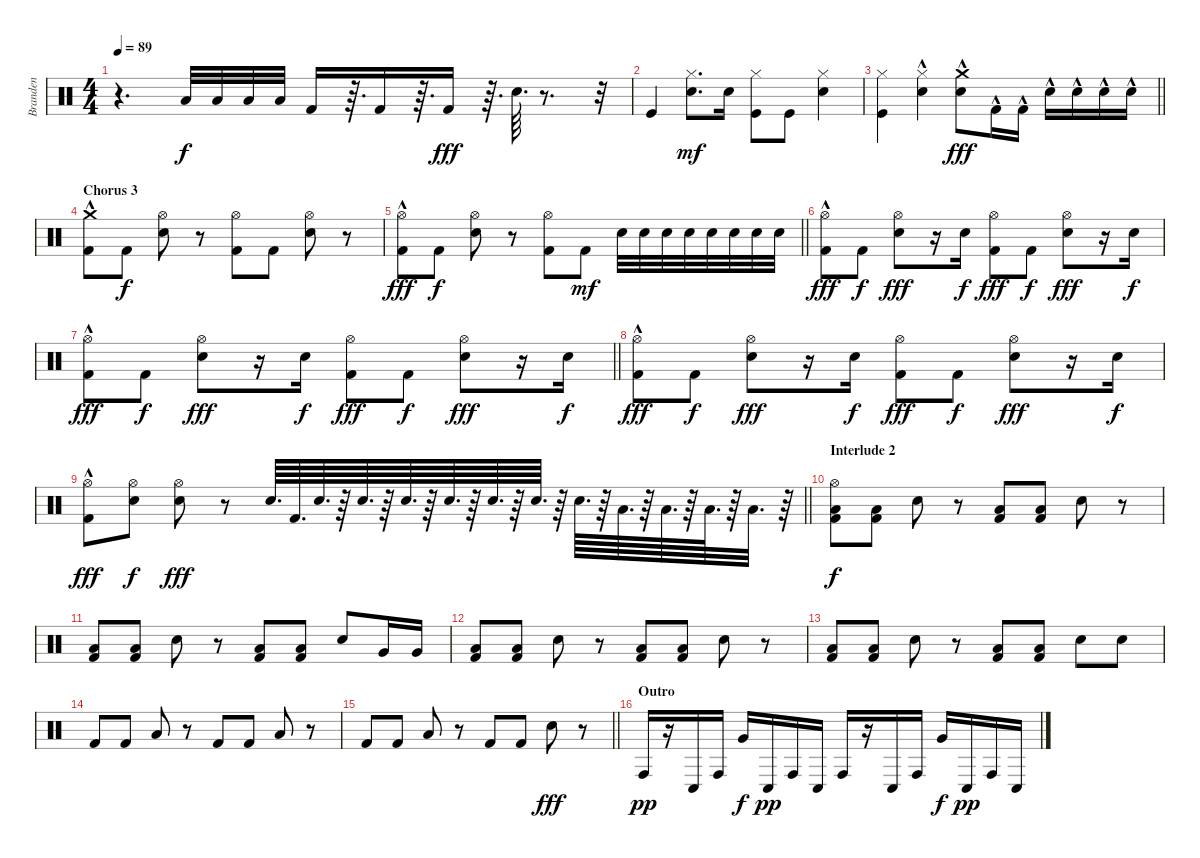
\track ("Branden" "Branden") {instrument percussion}
\staff {score}
\articulation defaults
\ts (4 4)
\tempo 89
\clef neutral
\ks c
r.4{d dy ff} "Low Tom (hit)".32{dy f} "Low Tom (hit)".32 "Low Tom (hit)".32 "Low Floor Tom (hit)".32 "Kick (hit) 2".16 r.64{d} "Kick (hit) 2".16 r.64{d} "Kick (hit) 2".16{dy fff} r.64{d} "Electric Snare (hit)".64{d} r.8{d} r.32 |
"Kick (hit)".4 ("Hi-Hat (closed)" "Electric Snare (hit)").8{d dy mf} "Electric Snare (hit)".16 ("Hi-Hat (closed)" "Kick (hit)").8 "Kick (hit)".8 ("Hi-Hat (closed)" "Electric Snare (hit)").4 |
\barLineRight lightlight
("Hi-Hat (closed)" "Kick (hit)").4 ("Hi-Hat (closed)"{hac} "Electric Snare (hit)").4 ("Crash medium (hit)"{hac} "Electric Snare (hit)"{hac}).8{dy fff} "Kick (hit) 2"{hac}.16 "Kick (hit) 2"{hac}.16 "Electric Snare (hit)"{hac}.16 "Electric Snare (hit)"{hac}.16 "Electric Snare (hit)"{hac}.16 "Electric Snare (hit)"{hac}.16 |
\section ("" "Chorus 3")
("Crash medium (hit)"{hac} "Kick (hit) 2").8 "Kick (hit) 2".8{dy f} ("Hi-Hat (open)" "Electric Snare (hit)").8 r.8 ("Hi-Hat (open)" "Kick (hit) 2").8 "Kick (hit) 2".8 ("Hi-Hat (open)" "Electric Snare (hit)").8 r.8 |
\barLineRight lightlight
("Hi-Hat (open)"{hac} "Kick (hit) 2").8{dy fff} "Kick (hit) 2".8{dy f} ("Hi-Hat (open)" "Electric Snare (hit)").8 r.8 ("Hi-Hat (open)" "Kick (hit) 2").8 "Kick (hit) 2".8{dy mf} "Electric Snare (hit)".32 "Electric Snare (hit)".32 "Electric Snare (hit)".32 "Electric Snare (hit)".32 "Electric Snare (hit)".32 "Electric Snare (hit)".32 "Electric Snare (hit)".32 "Electric Snare (hit)".32 |
("Hi-Hat (open)"{hac} "Kick (hit) 2").8{dy fff} "Kick (hit) 2".8{dy f} ("Hi-Hat (open)" "Electric Snare (hit)").8{dy fff} r.16 "Electric Snare (hit)".16{dy f} ("Hi-Hat (open)" "Kick (hit) 2").8{dy fff} "Kick (hit) 2".8{dy f} ("Hi-Hat (open)" "Electric Snare (hit)").8{dy fff} r.16 "Electric Snare (hit)".16{dy f} |
\barLineRight lightlight
("Hi-Hat (open)"{hac} "Kick (hit) 2").8{dy fff} "Kick (hit) 2".8{dy f} ("Hi-Hat (open)" "Electric Snare (hit)").8{dy fff} r.16 "Electric Snare (hit)".16{dy f} ("Hi-Hat (open)" "Kick (hit) 2").8{dy fff} "Kick (hit) 2".8{dy f} ("Hi-Hat (open)" "Electric Snare (hit)").8{dy fff} r.16 "Electric Snare (hit)".16{dy f} |
("Hi-Hat (open)"{hac} "Kick (hit) 2").8{dy fff} "Kick (hit) 2".8{dy f} ("Hi-Hat (open)" "Electric Snare (hit)").8{dy fff} r.16 "Electric Snare (hit)".16{dy f} ("Hi-Hat (open)" "Kick (hit) 2").8{dy fff} "Kick (hit) 2".8{dy f} ("Hi-Hat (open)" "Electric Snare (hit)").8{dy fff} r.16 "Electric Snare (hit)".16{dy f} |
\barLineRight lightlight
("Hi-Hat (open)"{hac} "Kick (hit) 2").8{dy fff} ("Hi-Hat (open)" "Electric Snare (hit)").8{dy f} ("Hi-Hat (open)" "Electric Snare (hit)").8{dy fff} r.8 "Electric Snare (hit)".64{d} "Kick (hit) 2".64{d} "Electric Snare (hit)".64{d} r.64 "Electric Snare (hit)".64{d} r.64 "Electric Snare (hit)".64{d} r.64 "Electric Snare (hit)".64{d} r.64 "Electric Snare (hit)".64{d} r.64 "Electric Snare (hit)".64{d} r.64 "Electric Snare (hit)".64{d} r.64 "Low Tom (hit)".64{d} r.64 "Low Tom (hit)".64{d} r.64 "Low Floor Tom (hit)".64{d} r.64 "Low Floor Tom (hit)".32{d} r.64 |
\section ("" "Interlude 2")
("Hi-Hat (open)" "Low Floor Tom (hit)" "Kick (hit) 2").8{dy f} ("Low Floor Tom (hit)" "Kick (hit) 2").8 "Electric Snare (hit)".8 r.8 ("Low Floor Tom (hit)" "Kick (hit) 2").8 ("Low Floor Tom (hit)" "Kick (hit) 2").8 "Electric Snare (hit)".8 r.8 |
("Low Floor Tom (hit)" "Kick (hit) 2").8 ("Low Floor Tom (hit)" "Kick (hit) 2").8 "Electric Snare (hit)".8 r.8 ("Low Floor Tom (hit)" "Kick (hit) 2").8 ("Low Floor Tom (hit)" "Kick (hit) 2").8 "Electric Snare (hit)".8 "Very Low Tom (hit)".16 "Very Low Tom (hit)".16 |
("Low Floor Tom (hit)" "Kick (hit) 2").8 ("Low Floor Tom (hit)" "Kick (hit) 2").8 "Electric Snare (hit)".8 r.8 ("Low Floor Tom (hit)" "Kick (hit) 2").8 ("Low Floor Tom (hit)" "Kick (hit) 2").8 "Electric Snare (hit)".8 r.8 |
("Low Floor Tom (hit)" "Kick (hit) 2").8 ("Low Floor Tom (hit)" "Kick (hit) 2").8 "Electric Snare (hit)".8 r.8 ("Low Floor Tom (hit)" "Kick (hit) 2").8 ("Low Floor Tom (hit)" "Kick (hit) 2").8 "Electric Snare (hit)".8 "Electric Snare (hit)".8 |
"Kick (hit) 2".8 "Kick (hit) 2".8 "Low Floor Tom (hit)".8 r.8 "Kick (hit) 2".8 "Kick (hit) 2".8 "Low Floor Tom (hit)".8 r.8 |
\barLineRight lightlight "Kick (hit) 2".8 "Kick (hit) 2".8 "Low Floor Tom (hit)".8
r.8 "Kick (hit) 2".8 "Kick (hit) 2".8 "Electric Snare (hit)".8{dy fff} r.8 |
\section ("" "Outro")
"Conga high (hit)".16{dy pp} r.16 "Conga low (hit)".16 "Conga high (hit)".16 "Very Low Tom (hit)".16{dy f} "Conga low (hit)".16{dy pp} "Conga high (hit)".16 "Conga low (hit)".16 "Conga high (hit)".16 r.16 "Conga low (hit)".16 "Conga high (hit)".16 "Very Low Tom (hit)".16{dy f} "Conga low (hit)".16{dy pp} "Conga high (hit)".16 "Conga low (hit)".16
